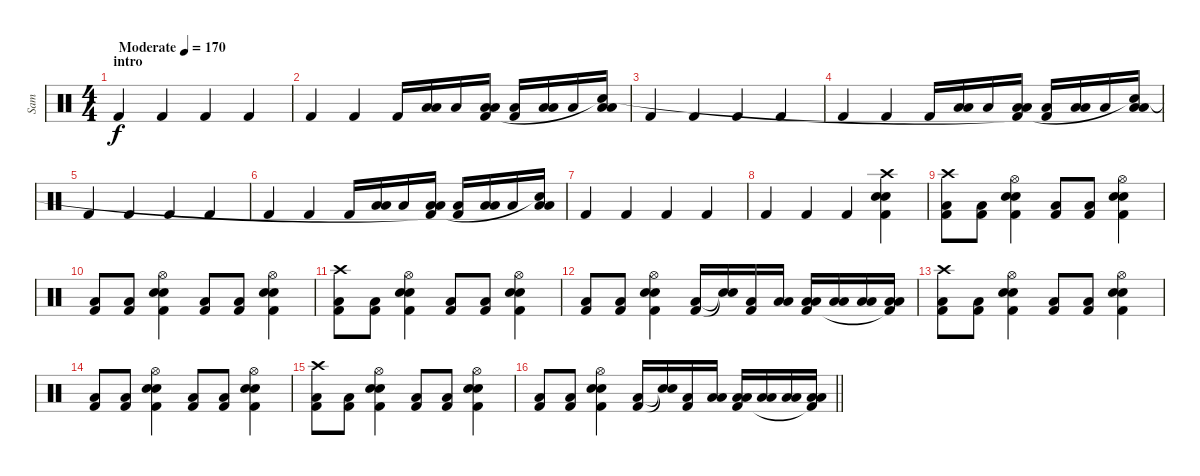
\track ("Sam" "Sam") {instrument percussion}
\staff {score}
\articulation defaults
\ts (4 4)
\section ("" "intro")
\tempo (170 "Moderate")
\clef neutral
\ks c "Kick (hit) 2".4{dy f} "Kick (hit) 2".4 "Kick (hit) 2".4 "Kick (hit) 2".4
|
"Kick (hit) 2".4 "Kick (hit) 2".4 "Kick (hit) 2".16 ("Low Tom (hit)" "Low Floor Tom (hit)").16 "Low Tom (hit)".16 ("Low Tom (hit)" "Low Floor Tom (hit)" "Kick (hit) 2").16 ("Low Tom (hit)" "Kick (hit) 2").16 ("Low Tom (hit)" "Low Floor Tom (hit)").16 "Low Tom (hit)".16 ("Low Tom (hit)" "Low Floor Tom (hit)" "Snare (hit)"{t}).16 |
"Kick (hit) 2".4 "Kick (hit) 2".4 "Kick (hit) 2".4 "Kick (hit) 2".4 |
"Kick (hit) 2".4 "Kick (hit) 2".4 "Kick (hit) 2".16 ("Low Tom (hit)" "Low Floor Tom (hit)").16 "Low Tom (hit)".16 ("Low Tom (hit)" "Low Floor Tom (hit)" "Kick (hit) 2"{t}).16 ("Low Tom (hit)" "Kick (hit) 2").16 ("Low Tom (hit)" "Low Floor Tom (hit)").16 "Low Tom (hit)".16 ("Low Tom (hit)" "Low Floor Tom (hit)" "Snare (hit)"{t}).16 |
"Kick (hit) 2".4 "Kick (hit) 2".4 "Kick (hit) 2".4 "Kick (hit) 2".4 |
"Kick (hit) 2".4 "Kick (hit) 2".4 "Kick (hit) 2".16 ("Low Tom (hit)" "Low Floor Tom (hit)").16 "Low Tom (hit)".16 ("Low Tom (hit)" "Low Floor Tom (hit)" "Kick (hit) 2"{t}).16 ("Low Tom (hit)" "Kick (hit) 2").16 ("Low Tom (hit)" "Low Floor Tom (hit)").16 "Low Tom (hit)".16 ("Low Tom (hit)" "Low Floor Tom (hit)" "Snare (hit)"{t}).16 |
"Kick (hit) 2".4 "Kick (hit) 2".4 "Kick (hit) 2".4 "Kick (hit) 2".4 |
"Kick (hit) 2".4 "Kick (hit) 2".4 "Kick (hit) 2".4 ("Crash high (hit)" "Snare (hit) 2" "Snare (hit) 2" "Kick (hit) 2").4 |
("Crash high (hit)" "Low Floor Tom (hit)" "Kick (hit) 2").8 ("Low Floor Tom (hit)" "Kick (hit) 2").8 ("Hi-Hat (open)" "Snare (hit) 2" "Snare (hit) 2" "Kick (hit) 2").4 ("Low Floor Tom (hit)" "Kick (hit) 2").8 ("Low Floor Tom (hit)" "Kick (hit) 2").8 ("Hi-Hat (open)" "Snare (hit) 2" "Snare (hit) 2" "Kick (hit) 2").4 |
("Low Floor Tom (hit)" "Kick (hit) 2").8 ("Low Floor Tom (hit)" "Kick (hit) 2").8 ("Hi-Hat (open)" "Snare (hit) 2" "Snare (hit) 2" "Kick (hit) 2").4 ("Low Floor Tom (hit)" "Kick (hit) 2").8 ("Low Floor Tom (hit)" "Kick (hit) 2").8 ("Hi-Hat (open)" "Snare (hit) 2" "Snare (hit) 2" "Kick (hit) 2").4 |
("Crash high (hit)" "Low Floor Tom (hit)" "Kick (hit) 2").8 ("Low Floor Tom (hit)" "Kick (hit) 2").8 ("Hi-Hat (open)" "Snare (hit) 2" "Snare (hit) 2" "Kick (hit) 2").4 ("Low Floor Tom (hit)" "Kick (hit) 2").8 ("Low Floor Tom (hit)" "Kick (hit) 2").8 ("Hi-Hat (open)" "Snare (hit) 2" "Snare (hit) 2" "Kick (hit) 2").4 |
("Low Floor Tom (hit)" "Kick (hit) 2").8 ("Low Floor Tom (hit)" "Kick (hit) 2").8 ("Hi-Hat (open)" "Snare (hit) 2" "Snare (hit) 2" "Kick (hit) 2").4 ("Low Floor Tom (hit)" "Kick (hit) 2").16 ("Snare (hit)"{t} "Snare (hit)"{t}).16 ("Low Floor Tom (hit)" "Kick (hit) 2").16 ("Low Floor Tom (hit)" "Low Tom (hit)").16 ("Low Floor Tom (hit)" "Low Tom (hit)" "Kick (hit) 2").16 ("Low Floor Tom (hit)" "Low Tom (hit)").16 ("Low Floor Tom (hit)" "Low Tom (hit)").16 ("Low Floor Tom (hit)" "Low Tom (hit)" "Kick (hit) 2"{t}).16 |
("Crash high (hit)" "Low Floor Tom (hit)" "Kick (hit) 2").8 ("Low Floor Tom (hit)" "Kick (hit) 2").8 ("Hi-Hat (open)" "Snare (hit) 2" "Snare (hit) 2" "Kick (hit) 2").4 ("Low Floor Tom (hit)" "Kick (hit) 2").8 ("Low Floor Tom (hit)" "Kick (hit) 2").8 ("Hi-Hat (open)" "Snare (hit) 2" "Snare (hit) 2" "Kick (hit) 2").4 |
("Low Floor Tom (hit)" "Kick (hit) 2").8 ("Low Floor Tom (hit)" "Kick (hit) 2").8 ("Hi-Hat (open)" "Snare (hit) 2" "Snare (hit) 2" "Kick (hit) 2").4 ("Low Floor Tom (hit)" "Kick (hit) 2").8 ("Low Floor Tom (hit)" "Kick (hit) 2").8 ("Hi-Hat (open)" "Snare (hit) 2" "Snare (hit) 2" "Kick (hit) 2").4 |
("Crash high (hit)" "Low Floor Tom (hit)" "Kick (hit) 2").8 ("Low Floor Tom (hit)" "Kick (hit) 2").8 ("Hi-Hat (open)" "Snare (hit) 2" "Snare (hit) 2" "Kick (hit) 2").4 ("Low Floor Tom (hit)" "Kick (hit) 2").8 ("Low Floor Tom (hit)" "Kick (hit) 2").8 ("Hi-Hat (open)" "Snare (hit) 2" "Snare (hit) 2" "Kick (hit) 2").4 |
\barLineRight lightlight
("Low Floor Tom (hit)" "Kick (hit) 2").8 ("Low Floor Tom (hit)" "Kick (hit) 2").8 ("Hi-Hat (open)" "Snare (hit) 2" "Snare (hit) 2" "Kick (hit) 2").4 ("Low Floor Tom (hit)" "Kick (hit) 2").16 ("Snare (hit)"{t} "Snare (hit)"{t}).16 ("Low Floor Tom (hit)" "Kick (hit) 2").16 ("Low Floor Tom (hit)" "Low Tom (hit)").16 ("Low Floor Tom (hit)" "Low Tom (hit)" "Kick (hit) 2").16 ("Low Floor Tom (hit)" "Low Tom (hit)").16 ("Low Floor Tom (hit)" "Low Tom (hit)").16 ("Low Floor Tom (hit)" "Low Tom (hit)" "Kick (hit) 2"{t}).16
